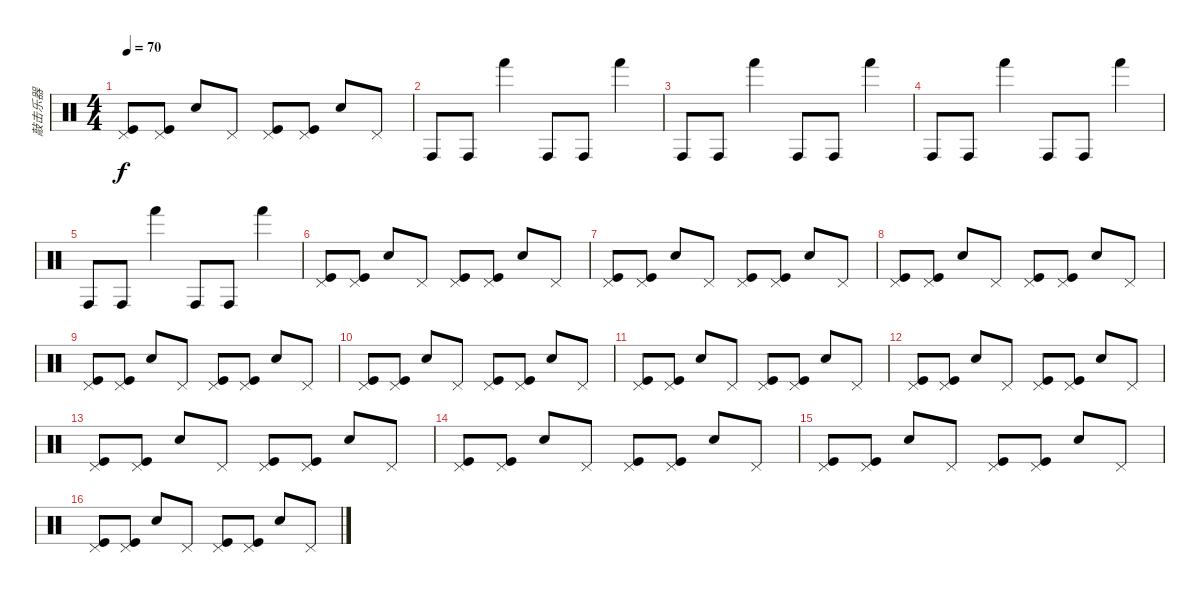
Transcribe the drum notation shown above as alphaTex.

\track ("敲击乐器" "敲击乐器") {instrument percussion}
\staff {score}
\articulation defaults
\ts (4 4)
\tempo 70
\clef neutral
\ks c
("Pedal Hi-Hat (hit)" "Kick (hit)").8{dy f} ("Pedal Hi-Hat (hit)" "Kick (hit)").8 "Snare (hit) 2".8 "Pedal Hi-Hat (hit)".8 ("Pedal Hi-Hat (hit)" "Kick (hit)").8 ("Pedal Hi-Hat (hit)" "Kick (hit)").8 "Snare (hit) 2".8 "Pedal Hi-Hat (hit)".8 |
"Conga high (hit)".8 "Conga high (hit)".8 "Hand (hit)".4 "Conga high (hit)".8 "Conga high (hit)".8 "Hand (hit)".4 |
"Conga high (hit)".8 "Conga high (hit)".8 "Hand (hit)".4 "Conga high (hit)".8 "Conga high (hit)".8 "Hand (hit)".4 |
"Conga high (hit)".8 "Conga high (hit)".8 "Hand (hit)".4 "Conga high (hit)".8 "Conga high (hit)".8 "Hand (hit)".4 |
"Conga high (hit)".8 "Conga high (hit)".8 "Hand (hit)".4 "Conga high (hit)".8 "Conga high (hit)".8 "Hand (hit)".4 |
("Pedal Hi-Hat (hit)" "Kick (hit)").8 ("Pedal Hi-Hat (hit)" "Kick (hit)").8 "Snare (hit) 2".8 "Pedal Hi-Hat (hit)".8 ("Pedal Hi-Hat (hit)" "Kick (hit)").8 ("Pedal Hi-Hat (hit)" "Kick (hit)").8 "Snare (hit) 2".8 "Pedal Hi-Hat (hit)".8 |
("Pedal Hi-Hat (hit)" "Kick (hit)").8 ("Pedal Hi-Hat (hit)" "Kick (hit)").8 "Snare (hit) 2".8 "Pedal Hi-Hat (hit)".8 ("Pedal Hi-Hat (hit)" "Kick (hit)").8 ("Pedal Hi-Hat (hit)" "Kick (hit)").8 "Snare (hit) 2".8 "Pedal Hi-Hat (hit)".8 |
("Pedal Hi-Hat (hit)" "Kick (hit)").8 ("Pedal Hi-Hat (hit)" "Kick (hit)").8 "Snare (hit) 2".8 "Pedal Hi-Hat (hit)".8 ("Pedal Hi-Hat (hit)" "Kick (hit)").8 ("Pedal Hi-Hat (hit)" "Kick (hit)").8 "Snare (hit) 2".8 "Pedal Hi-Hat (hit)".8 |
("Pedal Hi-Hat (hit)" "Kick (hit)").8 ("Pedal Hi-Hat (hit)" "Kick (hit)").8 "Snare (hit) 2".8 "Pedal Hi-Hat (hit)".8 ("Pedal Hi-Hat (hit)" "Kick (hit)").8 ("Pedal Hi-Hat (hit)" "Kick (hit)").8 "Snare (hit) 2".8 "Pedal Hi-Hat (hit)".8 |
("Pedal Hi-Hat (hit)" "Kick (hit)").8 ("Pedal Hi-Hat (hit)" "Kick (hit)").8 "Snare (hit) 2".8 "Pedal Hi-Hat (hit)".8 ("Pedal Hi-Hat (hit)" "Kick (hit)").8 ("Pedal Hi-Hat (hit)" "Kick (hit)").8 "Snare (hit) 2".8 "Pedal Hi-Hat (hit)".8 |
("Pedal Hi-Hat (hit)" "Kick (hit)").8 ("Pedal Hi-Hat (hit)" "Kick (hit)").8 "Snare (hit) 2".8 "Pedal Hi-Hat (hit)".8 ("Pedal Hi-Hat (hit)" "Kick (hit)").8 ("Pedal Hi-Hat (hit)" "Kick (hit)").8 "Snare (hit) 2".8 "Pedal Hi-Hat (hit)".8 |
("Pedal Hi-Hat (hit)" "Kick (hit)").8 ("Pedal Hi-Hat (hit)" "Kick (hit)").8 "Snare (hit) 2".8 "Pedal Hi-Hat (hit)".8 ("Pedal Hi-Hat (hit)" "Kick (hit)").8 ("Pedal Hi-Hat (hit)" "Kick (hit)").8 "Snare (hit) 2".8 "Pedal Hi-Hat (hit)".8 |
("Pedal Hi-Hat (hit)" "Kick (hit)").8 ("Pedal Hi-Hat (hit)" "Kick (hit)").8 "Snare (hit) 2".8 "Pedal Hi-Hat (hit)".8 ("Pedal Hi-Hat (hit)" "Kick (hit)").8 ("Pedal Hi-Hat (hit)" "Kick (hit)").8 "Snare (hit) 2".8 "Pedal Hi-Hat (hit)".8 |
("Pedal Hi-Hat (hit)" "Kick (hit)").8 ("Pedal Hi-Hat (hit)" "Kick (hit)").8 "Snare (hit) 2".8 "Pedal Hi-Hat (hit)".8 ("Pedal Hi-Hat (hit)" "Kick (hit)").8 ("Pedal Hi-Hat (hit)" "Kick (hit)").8 "Snare (hit) 2".8 "Pedal Hi-Hat (hit)".8 |
("Pedal Hi-Hat (hit)" "Kick (hit)").8 ("Pedal Hi-Hat (hit)" "Kick (hit)").8 "Snare (hit) 2".8 "Pedal Hi-Hat (hit)".8 ("Pedal Hi-Hat (hit)" "Kick (hit)").8 ("Pedal Hi-Hat (hit)" "Kick (hit)").8 "Snare (hit) 2".8 "Pedal Hi-Hat (hit)".8 |
("Pedal Hi-Hat (hit)" "Kick (hit)").8 ("Pedal Hi-Hat (hit)" "Kick (hit)").8 "Snare (hit) 2".8 "Pedal Hi-Hat (hit)".8 ("Pedal Hi-Hat (hit)" "Kick (hit)").8 ("Pedal Hi-Hat (hit)" "Kick (hit)").8 "Snare (hit) 2".8 "Pedal Hi-Hat (hit)".8
